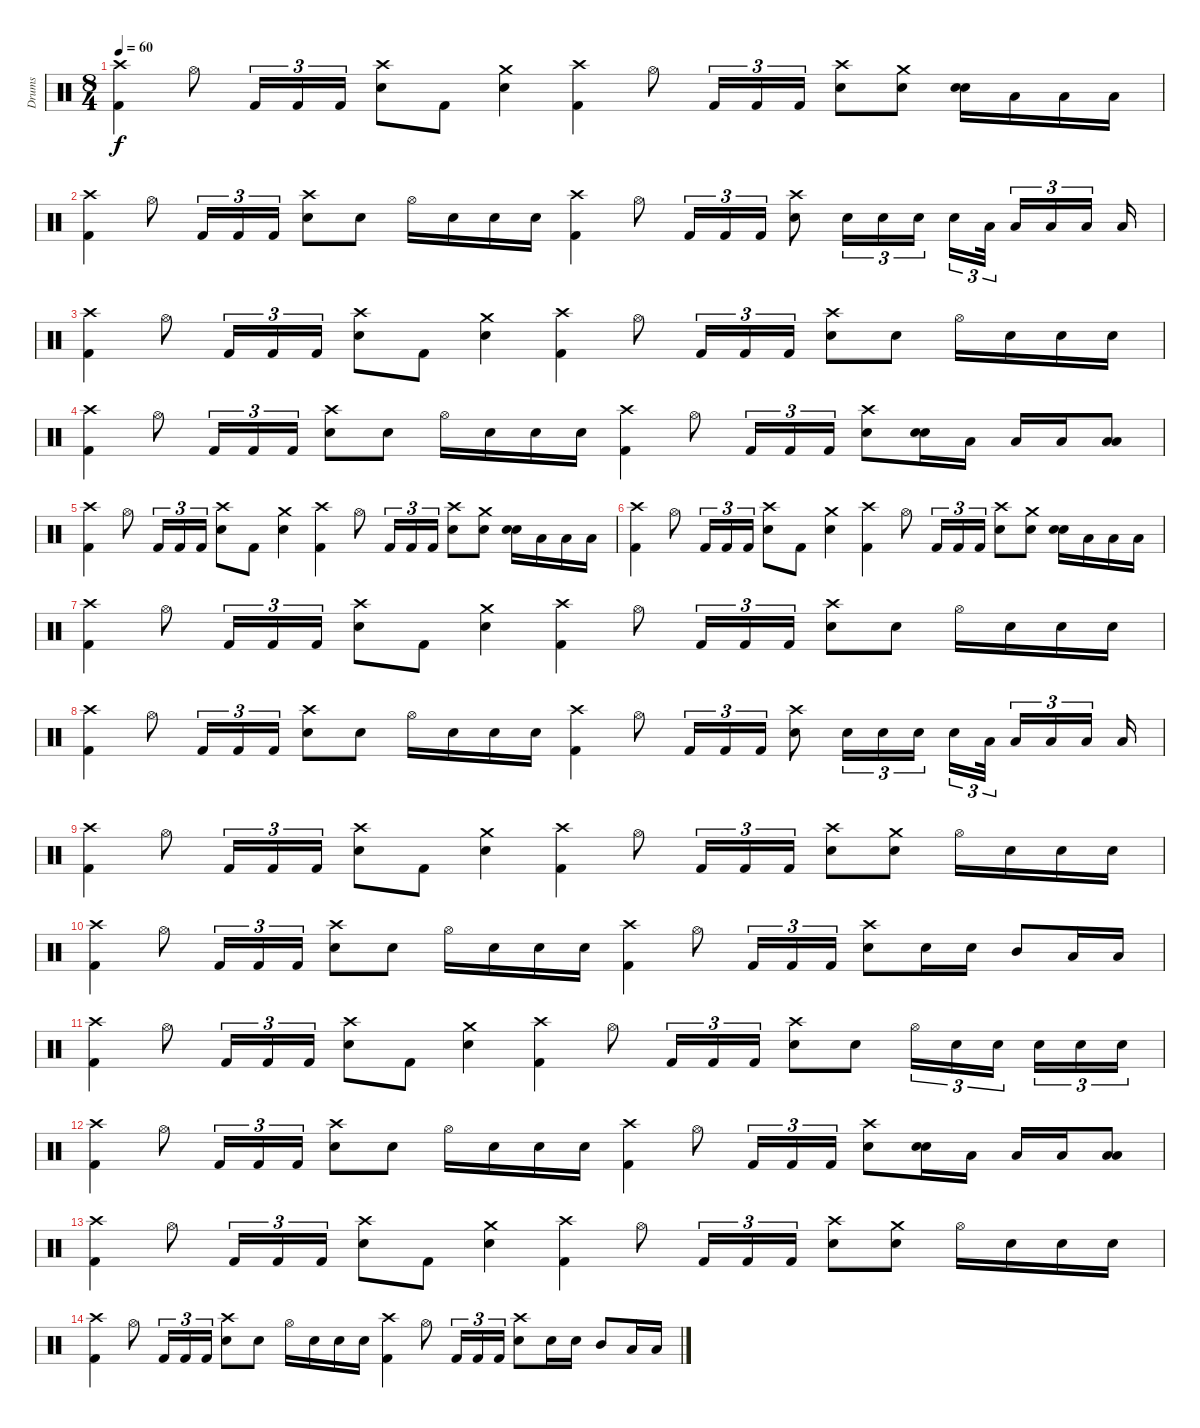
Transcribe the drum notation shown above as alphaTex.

\track ("Drums" "Drums") {instrument percussion}
\staff {score}
\articulation defaults
\ts (8 4)
\tempo 60
\clef neutral
\ks c
("Crash high (hit)" "Kick (hit) 2").4{dy f} "Hi-Hat (open)".8 "Kick (hit) 2".16{tu (3 2)} "Kick (hit) 2".16{tu (3 2)} "Kick (hit) 2".16{tu (3 2)} ("Crash high (hit)" "Electric Snare (hit)").8 "Kick (hit) 2".8 ("Crash medium (hit)" "Electric Snare (hit)").4 ("Crash high (hit)" "Kick (hit) 2").4 "Hi-Hat (open)".8 "Kick (hit) 2".16{tu (3 2)} "Kick (hit) 2".16{tu (3 2)} "Kick (hit) 2".16{tu (3 2)} ("Crash high (hit)" "Electric Snare (hit)").8 ("Crash medium (hit)" "Electric Snare (hit)").8 ("Electric Snare (hit)" "Electric Snare (hit)").16{bu 60} "Low Tom (hit)".16 "Low Tom (hit)".16 "Low Tom (hit)".16 |
("Crash high (hit)" "Kick (hit) 2").4 "Hi-Hat (open)".8 "Kick (hit) 2".16{tu (3 2)} "Kick (hit) 2".16{tu (3 2)} "Kick (hit) 2".16{tu (3 2)} ("Crash high (hit)" "Electric Snare (hit)").8 "Electric Snare (hit)".8 "Hi-Hat (open)".16 "Electric Snare (hit)".16 "Electric Snare (hit)".16 "Electric Snare (hit)".16 ("Crash high (hit)" "Kick (hit) 2").4 "Hi-Hat (open)".8 "Kick (hit) 2".16{tu (3 2)} "Kick (hit) 2".16{tu (3 2)} "Kick (hit) 2".16{tu (3 2)} ("Crash high (hit)" "Electric Snare (hit)").8 "Electric Snare (hit)".16{tu (3 2)} "Electric Snare (hit)".16{tu (3 2)} "Electric Snare (hit)".16{tu (3 2)} "Electric Snare (hit)".16{tu (3 2)} "Low Tom (hit)".32{tu (3 2)} "Low Tom (hit)".16{tu (3 2)} "Low Tom (hit)".16{tu (3 2)} "Low Tom (hit)".16{tu (3 2)} "Low Tom (hit)".16 |
("Crash high (hit)" "Kick (hit) 2").4 "Hi-Hat (open)".8 "Kick (hit) 2".16{tu (3 2)} "Kick (hit) 2".16{tu (3 2)} "Kick (hit) 2".16{tu (3 2)} ("Crash high (hit)" "Electric Snare (hit)").8 "Kick (hit) 2".8 ("Crash medium (hit)" "Electric Snare (hit)").4 ("Crash high (hit)" "Kick (hit) 2").4 "Hi-Hat (open)".8 "Kick (hit) 2".16{tu (3 2)} "Kick (hit) 2".16{tu (3 2)} "Kick (hit) 2".16{tu (3 2)} ("Crash high (hit)" "Electric Snare (hit)").8 "Electric Snare (hit)".8 "Hi-Hat (open)".16 "Electric Snare (hit)".16 "Electric Snare (hit)".16 "Electric Snare (hit)".16 |
("Crash high (hit)" "Kick (hit) 2").4 "Hi-Hat (open)".8 "Kick (hit) 2".16{tu (3 2)} "Kick (hit) 2".16{tu (3 2)} "Kick (hit) 2".16{tu (3 2)} ("Crash high (hit)" "Electric Snare (hit)").8 "Electric Snare (hit)".8 "Hi-Hat (open)".16 "Electric Snare (hit)".16 "Electric Snare (hit)".16 "Electric Snare (hit)".16 ("Crash high (hit)" "Kick (hit) 2").4 "Hi-Hat (open)".8 "Kick (hit) 2".16{tu (3 2)} "Kick (hit) 2".16{tu (3 2)} "Kick (hit) 2".16{tu (3 2)} ("Crash high (hit)" "Electric Snare (hit)").8 ("Electric Snare (hit)" "Electric Snare (hit)").16{bu 60} "Low Tom (hit)".16 "Low Tom (hit)".16 "Low Tom (hit)".16 ("Low Tom (hit)" "Low Tom (hit)").8{bu 60} |
("Crash high (hit)" "Kick (hit) 2").4 "Hi-Hat (open)".8 "Kick (hit) 2".16{tu (3 2)} "Kick (hit) 2".16{tu (3 2)} "Kick (hit) 2".16{tu (3 2)} ("Crash high (hit)" "Electric Snare (hit)").8 "Kick (hit) 2".8 ("Crash medium (hit)" "Electric Snare (hit)").4 ("Crash high (hit)" "Kick (hit) 2").4 "Hi-Hat (open)".8 "Kick (hit) 2".16{tu (3 2)} "Kick (hit) 2".16{tu (3 2)} "Kick (hit) 2".16{tu (3 2)} ("Crash high (hit)" "Electric Snare (hit)").8 ("Crash medium (hit)" "Electric Snare (hit)").8 ("Electric Snare (hit)" "Electric Snare (hit)").16{bu 60} "Low Tom (hit)".16 "Low Tom (hit)".16 "Low Tom (hit)".16 |
("Crash high (hit)" "Kick (hit) 2").4 "Hi-Hat (open)".8 "Kick (hit) 2".16{tu (3 2)} "Kick (hit) 2".16{tu (3 2)} "Kick (hit) 2".16{tu (3 2)} ("Crash high (hit)" "Electric Snare (hit)").8 "Kick (hit) 2".8 ("Crash medium (hit)" "Electric Snare (hit)").4 ("Crash high (hit)" "Kick (hit) 2").4 "Hi-Hat (open)".8 "Kick (hit) 2".16{tu (3 2)} "Kick (hit) 2".16{tu (3 2)} "Kick (hit) 2".16{tu (3 2)} ("Crash high (hit)" "Electric Snare (hit)").8 ("Crash medium (hit)" "Electric Snare (hit)").8 ("Electric Snare (hit)" "Electric Snare (hit)").16{bu 60} "Low Tom (hit)".16 "Low Tom (hit)".16 "Low Tom (hit)".16 |
("Crash high (hit)" "Kick (hit) 2").4 "Hi-Hat (open)".8 "Kick (hit) 2".16{tu (3 2)} "Kick (hit) 2".16{tu (3 2)} "Kick (hit) 2".16{tu (3 2)} ("Crash high (hit)" "Electric Snare (hit)").8 "Kick (hit) 2".8 ("Crash medium (hit)" "Electric Snare (hit)").4 ("Crash high (hit)" "Kick (hit) 2").4 "Hi-Hat (open)".8 "Kick (hit) 2".16{tu (3 2)} "Kick (hit) 2".16{tu (3 2)} "Kick (hit) 2".16{tu (3 2)} ("Crash high (hit)" "Electric Snare (hit)").8 "Electric Snare (hit)".8 "Hi-Hat (open)".16 "Electric Snare (hit)".16 "Electric Snare (hit)".16 "Electric Snare (hit)".16 |
("Crash high (hit)" "Kick (hit) 2").4 "Hi-Hat (open)".8 "Kick (hit) 2".16{tu (3 2)} "Kick (hit) 2".16{tu (3 2)} "Kick (hit) 2".16{tu (3 2)} ("Crash high (hit)" "Electric Snare (hit)").8 "Electric Snare (hit)".8 "Hi-Hat (open)".16 "Electric Snare (hit)".16 "Electric Snare (hit)".16 "Electric Snare (hit)".16 ("Crash high (hit)" "Kick (hit) 2").4 "Hi-Hat (open)".8 "Kick (hit) 2".16{tu (3 2)} "Kick (hit) 2".16{tu (3 2)} "Kick (hit) 2".16{tu (3 2)} ("Crash high (hit)" "Electric Snare (hit)").8 "Electric Snare (hit)".16{tu (3 2)} "Electric Snare (hit)".16{tu (3 2)} "Electric Snare (hit)".16{tu (3 2)} "Electric Snare (hit)".16{tu (3 2)} "Low Tom (hit)".32{tu (3 2)} "Low Tom (hit)".16{tu (3 2)} "Low Tom (hit)".16{tu (3 2)} "Low Tom (hit)".16{tu (3 2)} "Low Tom (hit)".16 |
("Crash high (hit)" "Kick (hit) 2").4 "Hi-Hat (open)".8 "Kick (hit) 2".16{tu (3 2)} "Kick (hit) 2".16{tu (3 2)} "Kick (hit) 2".16{tu (3 2)} ("Crash high (hit)" "Electric Snare (hit)").8 "Kick (hit) 2".8 ("Crash medium (hit)" "Electric Snare (hit)").4 ("Crash high (hit)" "Kick (hit) 2").4 "Hi-Hat (open)".8 "Kick (hit) 2".16{tu (3 2)} "Kick (hit) 2".16{tu (3 2)} "Kick (hit) 2".16{tu (3 2)} ("Crash high (hit)" "Electric Snare (hit)").8 ("Crash medium (hit)" "Electric Snare (hit)").8 "Hi-Hat (open)".16 "Electric Snare (hit)".16 "Electric Snare (hit)".16 "Electric Snare (hit)".16 |
("Crash high (hit)" "Kick (hit) 2").4 "Hi-Hat (open)".8 "Kick (hit) 2".16{tu (3 2)} "Kick (hit) 2".16{tu (3 2)} "Kick (hit) 2".16{tu (3 2)} ("Crash high (hit)" "Electric Snare (hit)").8 "Electric Snare (hit)".8 "Hi-Hat (open)".16 "Electric Snare (hit)".16 "Electric Snare (hit)".16 "Electric Snare (hit)".16 ("Crash high (hit)" "Kick (hit) 2").4 "Hi-Hat (open)".8 "Kick (hit) 2".16{tu (3 2)} "Kick (hit) 2".16{tu (3 2)} "Kick (hit) 2".16{tu (3 2)} ("Crash high (hit)" "Electric Snare (hit)").8 "Electric Snare (hit)".16 "Electric Snare (hit)".16 "Mid Tom (hit)".8 "Low Tom (hit)".16 "Low Tom (hit)".16 |
("Crash high (hit)" "Kick (hit) 2").4 "Hi-Hat (open)".8 "Kick (hit) 2".16{tu (3 2)} "Kick (hit) 2".16{tu (3 2)} "Kick (hit) 2".16{tu (3 2)} ("Crash high (hit)" "Electric Snare (hit)").8 "Kick (hit) 2".8 ("Crash medium (hit)" "Electric Snare (hit)").4 ("Crash high (hit)" "Kick (hit) 2").4 "Hi-Hat (open)".8 "Kick (hit) 2".16{tu (3 2)} "Kick (hit) 2".16{tu (3 2)} "Kick (hit) 2".16{tu (3 2)} ("Crash high (hit)" "Electric Snare (hit)").8 "Electric Snare (hit)".8 "Hi-Hat (open)".16{tu (3 2)} "Electric Snare (hit)".16{tu (3 2)} "Electric Snare (hit)".16{tu (3 2)} "Electric Snare (hit)".16{tu (3 2)} "Electric Snare (hit)".16{tu (3 2)} "Electric Snare (hit)".16{tu (3 2)} |
("Crash high (hit)" "Kick (hit) 2").4 "Hi-Hat (open)".8 "Kick (hit) 2".16{tu (3 2)} "Kick (hit) 2".16{tu (3 2)} "Kick (hit) 2".16{tu (3 2)} ("Crash high (hit)" "Electric Snare (hit)").8 "Electric Snare (hit)".8 "Hi-Hat (open)".16 "Electric Snare (hit)".16 "Electric Snare (hit)".16 "Electric Snare (hit)".16 ("Crash high (hit)" "Kick (hit) 2").4 "Hi-Hat (open)".8 "Kick (hit) 2".16{tu (3 2)} "Kick (hit) 2".16{tu (3 2)} "Kick (hit) 2".16{tu (3 2)} ("Crash high (hit)" "Electric Snare (hit)").8 ("Electric Snare (hit)" "Electric Snare (hit)").16{bu 60} "Low Tom (hit)".16 "Low Tom (hit)".16 "Low Tom (hit)".16 ("Low Tom (hit)" "Low Tom (hit)").8{bu 60} |
("Crash high (hit)" "Kick (hit) 2").4 "Hi-Hat (open)".8 "Kick (hit) 2".16{tu (3 2)} "Kick (hit) 2".16{tu (3 2)} "Kick (hit) 2".16{tu (3 2)} ("Crash high (hit)" "Electric Snare (hit)").8 "Kick (hit) 2".8 ("Crash medium (hit)" "Electric Snare (hit)").4 ("Crash high (hit)" "Kick (hit) 2").4 "Hi-Hat (open)".8 "Kick (hit) 2".16{tu (3 2)} "Kick (hit) 2".16{tu (3 2)} "Kick (hit) 2".16{tu (3 2)} ("Crash high (hit)" "Electric Snare (hit)").8 ("Crash medium (hit)" "Electric Snare (hit)").8 "Hi-Hat (open)".16 "Electric Snare (hit)".16 "Electric Snare (hit)".16 "Electric Snare (hit)".16 |
("Crash high (hit)" "Kick (hit) 2").4 "Hi-Hat (open)".8 "Kick (hit) 2".16{tu (3 2)} "Kick (hit) 2".16{tu (3 2)} "Kick (hit) 2".16{tu (3 2)} ("Crash high (hit)" "Electric Snare (hit)").8 "Electric Snare (hit)".8 "Hi-Hat (open)".16 "Electric Snare (hit)".16 "Electric Snare (hit)".16 "Electric Snare (hit)".16 ("Crash high (hit)" "Kick (hit) 2").4 "Hi-Hat (open)".8 "Kick (hit) 2".16{tu (3 2)} "Kick (hit) 2".16{tu (3 2)} "Kick (hit) 2".16{tu (3 2)} ("Crash high (hit)" "Electric Snare (hit)").8 "Electric Snare (hit)".16 "Electric Snare (hit)".16 "Mid Tom (hit)".8 "Low Tom (hit)".16 "Low Tom (hit)".16
